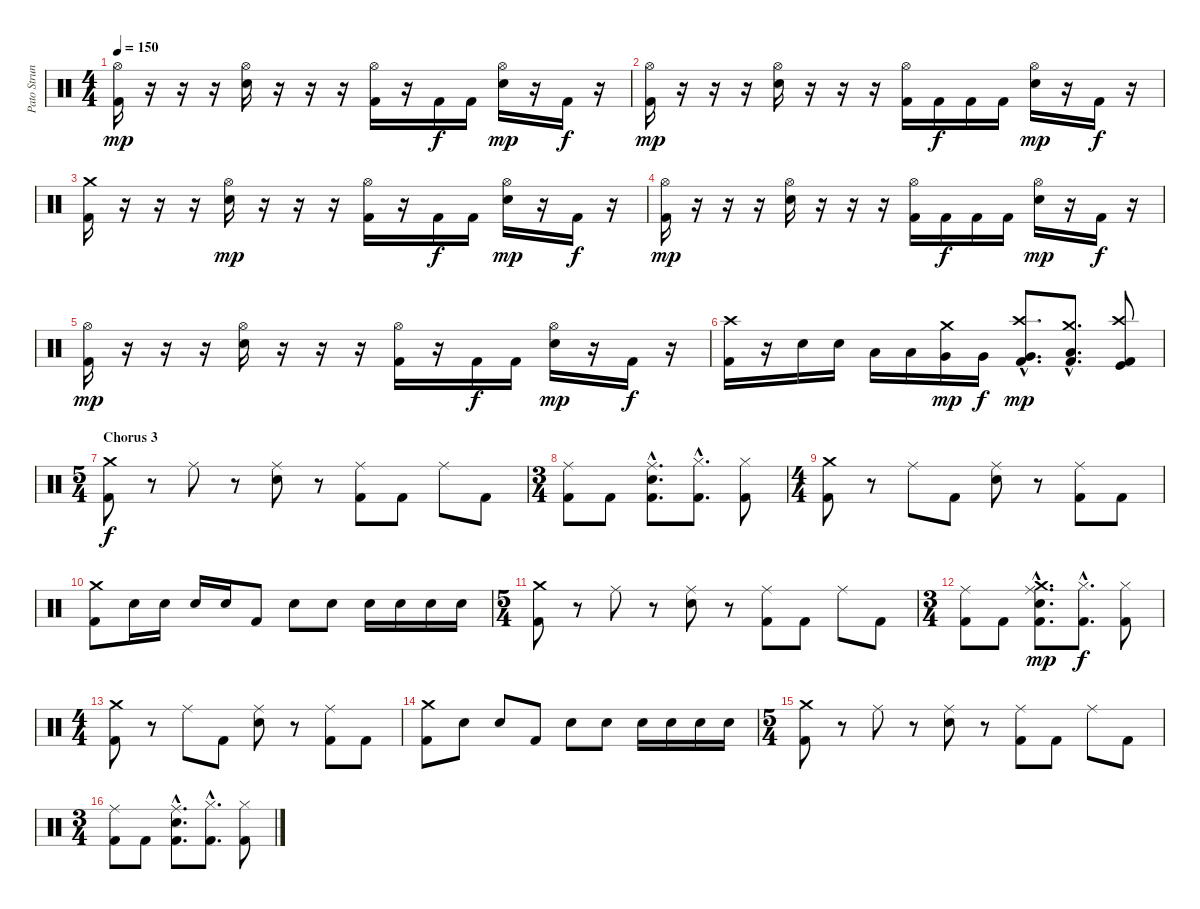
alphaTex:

\track ("Pato Strunz" "Pato Strun") {instrument percussion}
\staff {score}
\articulation defaults
\ts (4 4)
\tempo 150
\clef neutral
\ks c
("Hi-Hat (open)" "Kick (hit) 2").16{dy mp} r.16 r.16 r.16 ("Hi-Hat (open)" "Electric Snare (hit)").16 r.16 r.16 r.16 ("Hi-Hat (open)" "Kick (hit) 2").16 r.16 "Kick (hit) 2".16{dy f} "Kick (hit) 2".16 ("Hi-Hat (open)" "Electric Snare (hit)").16{dy mp} r.16 "Kick (hit) 2".16{dy f} r.16 |
("Hi-Hat (open)" "Kick (hit) 2").16{dy mp} r.16 r.16 r.16 ("Hi-Hat (open)" "Electric Snare (hit)").16 r.16 r.16 r.16 ("Hi-Hat (open)" "Kick (hit) 2").16 "Kick (hit) 2".16{dy f} "Kick (hit) 2".16 "Kick (hit) 2".16 ("Hi-Hat (open)" "Electric Snare (hit)").16{dy mp} r.16 "Kick (hit) 2".16{dy f} r.16 |
("Crash medium (hit)" "Kick (hit) 2").16 r.16 r.16 r.16 ("Hi-Hat (open)" "Electric Snare (hit)").16{dy mp} r.16 r.16 r.16 ("Hi-Hat (open)" "Kick (hit) 2").16 r.16 "Kick (hit) 2".16{dy f} "Kick (hit) 2".16 ("Hi-Hat (open)" "Electric Snare (hit)").16{dy mp} r.16 "Kick (hit) 2".16{dy f} r.16 |
("Hi-Hat (open)" "Kick (hit) 2").16{dy mp} r.16 r.16 r.16 ("Hi-Hat (open)" "Electric Snare (hit)").16 r.16 r.16 r.16 ("Hi-Hat (open)" "Kick (hit) 2").16 "Kick (hit) 2".16{dy f} "Kick (hit) 2".16 "Kick (hit) 2".16 ("Hi-Hat (open)" "Electric Snare (hit)").16{dy mp} r.16 "Kick (hit) 2".16{dy f} r.16 |
("Hi-Hat (open)" "Kick (hit) 2").16{dy mp} r.16 r.16 r.16 ("Hi-Hat (open)" "Electric Snare (hit)").16 r.16 r.16 r.16 ("Hi-Hat (open)" "Kick (hit) 2").16 r.16 "Kick (hit) 2".16{dy f} "Kick (hit) 2".16 ("Hi-Hat (open)" "Electric Snare (hit)").16{dy mp} r.16 "Kick (hit) 2".16{dy f} r.16 |
("Crash high (hit)" "Kick (hit) 2").16 r.16 "Electric Snare (hit)".16 "Electric Snare (hit)".16 "Low Tom (hit)".16 "Low Tom (hit)".16 ("Crash medium (hit)" "Very Low Tom (hit)").16{dy mp} "Very Low Tom (hit)".16{dy f} ("Crash high (hit)"{hac} "Very Low Tom (hit)"{hac} "Kick (hit) 2"{hac}).8{d dy mp} ("Crash medium (hit)"{hac} "Low Floor Tom (hit)"{hac} "Kick (hit) 2"{hac}).8{d} ("Crash high (hit)" "Kick (hit)" "Kick (hit) 2").8 |
\ts (5 4)
\section ("" "Chorus 3")
("Crash medium (hit)" "Kick (hit) 2").8{dy f} r.8 "Ride (middle)".8 r.8 ("Ride (middle)" "Electric Snare (hit)").8 r.8 ("Ride (middle)" "Kick (hit) 2").8 "Kick (hit) 2".8 "Ride (middle)".8 "Kick (hit) 2".8 |
\ts (3 4)
("Ride (middle)" "Kick (hit) 2").8 "Kick (hit) 2".8 ("Ride (middle)"{hac} "Electric Snare (hit)"{hac} "Kick (hit) 2"{hac}).8{d} ("Hi-Hat (closed)"{hac} "Kick (hit) 2"{hac}).8{d} ("Hi-Hat (closed)" "Kick (hit) 2").8 |
\ts (4 4)
("Crash medium (hit)" "Kick (hit) 2").8 r.8 "Ride (middle)".8 "Kick (hit) 2".8 ("Ride (middle)" "Electric Snare (hit)").8 r.8 ("Ride (middle)" "Kick (hit) 2").8 "Kick (hit) 2".8 |
("Crash medium (hit)" "Kick (hit) 2").8 "Electric Snare (hit)".16 "Electric Snare (hit)".16 "Electric Snare (hit)".16 "Electric Snare (hit)".16 "Kick (hit) 2".8 "Electric Snare (hit)".8 "Electric Snare (hit)".8 "Electric Snare (hit)".16 "Electric Snare (hit)".16 "Electric Snare (hit)".16 "Electric Snare (hit)".16 |
\ts (5 4)
("Crash medium (hit)" "Kick (hit) 2").8 r.8 "Ride (middle)".8 r.8 ("Ride (middle)" "Electric Snare (hit)").8 r.8 ("Ride (middle)" "Kick (hit) 2").8 "Kick (hit) 2".8 "Ride (middle)".8 "Kick (hit) 2".8 |
\ts (3 4)
("Ride (middle)" "Kick (hit) 2").8 "Kick (hit) 2".8 ("Ride (middle)"{hac} "Crash medium (hit)"{hac} "Electric Snare (hit)"{hac} "Kick (hit) 2"{hac}).8{d dy mp} ("Hi-Hat (closed)"{hac} "Kick (hit) 2"{hac}).8{d dy f} ("Hi-Hat (closed)" "Kick (hit) 2").8 |
\ts (4 4)
("Crash medium (hit)" "Kick (hit) 2").8 r.8 "Ride (middle)".8 "Kick (hit) 2".8 ("Ride (middle)" "Electric Snare (hit)").8 r.8 ("Ride (middle)" "Kick (hit) 2").8 "Kick (hit) 2".8 |
("Crash medium (hit)" "Kick (hit) 2").8 "Electric Snare (hit)".8 "Electric Snare (hit)".8 "Kick (hit) 2".8 "Electric Snare (hit)".8 "Electric Snare (hit)".8 "Electric Snare (hit)".16 "Electric Snare (hit)".16 "Electric Snare (hit)".16 "Electric Snare (hit)".16 |
\ts (5 4)
("Crash medium (hit)" "Kick (hit) 2").8 r.8 "Ride (middle)".8 r.8 ("Ride (middle)" "Electric Snare (hit)").8 r.8 ("Ride (middle)" "Kick (hit) 2").8 "Kick (hit) 2".8 "Ride (middle)".8 "Kick (hit) 2".8 |
\ts (3 4)
("Ride (middle)" "Kick (hit) 2").8 "Kick (hit) 2".8 ("Ride (middle)"{hac} "Electric Snare (hit)"{hac} "Kick (hit) 2"{hac}).8{d} ("Hi-Hat (closed)"{hac} "Kick (hit) 2"{hac}).8{d} ("Hi-Hat (closed)" "Kick (hit) 2").8
